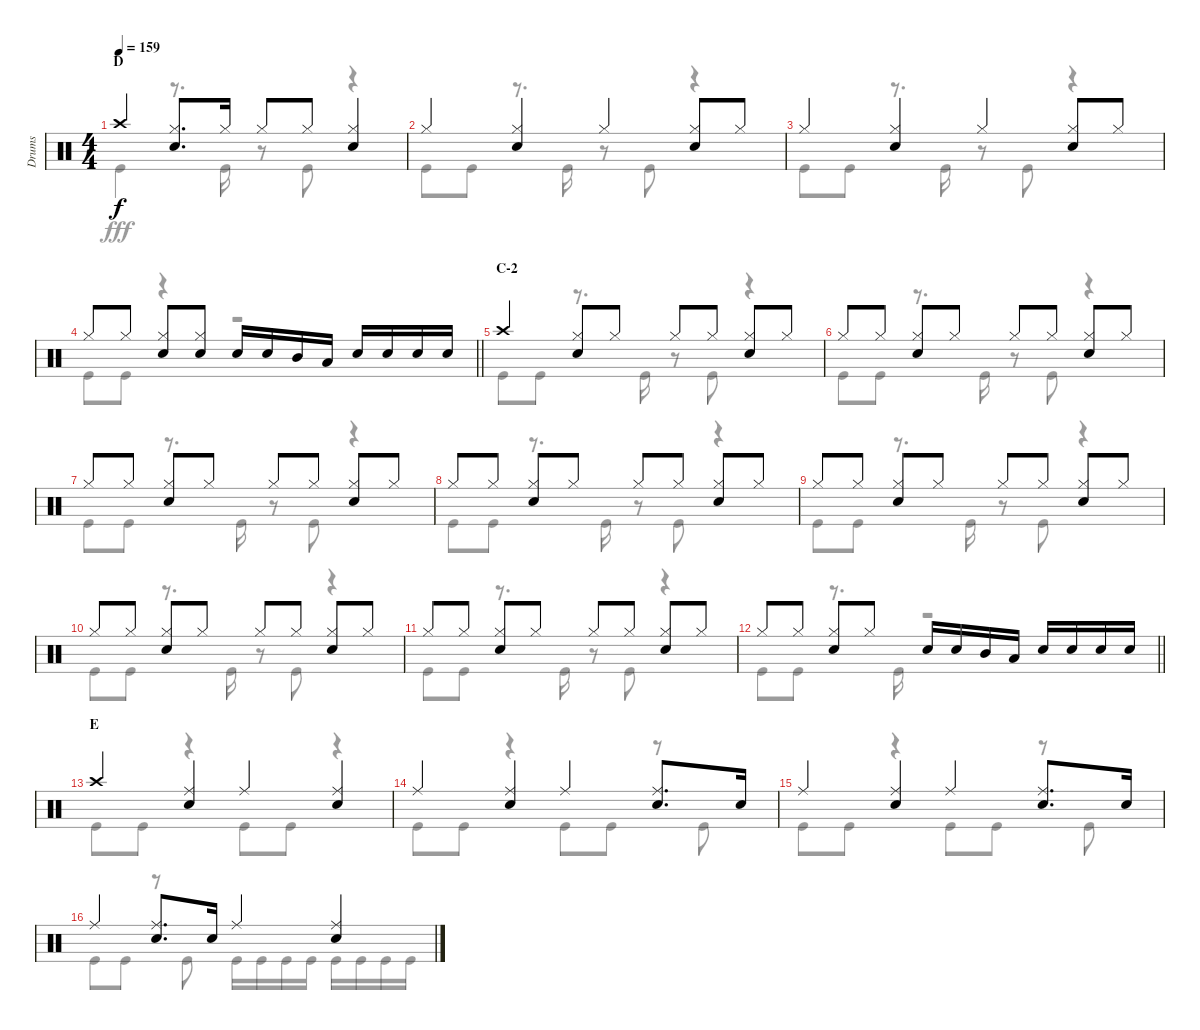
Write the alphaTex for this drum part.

\track ("Drums" "Drums") {instrument percussion}
\staff {score}
\articulation defaults
\voice
\ts (4 4)
\section ("" "D")
\tempo 159
\clef neutral
\ks c "Crash high (hit)".4{dy f}
("Hi-Hat (closed)" "Snare (hit) 2").8{d} "Hi-Hat (closed)".16 "Hi-Hat (closed)".8 "Hi-Hat (closed)".8 ("Hi-Hat (closed)" "Snare (hit) 2").4 |
"Hi-Hat (closed)".4 ("Hi-Hat (closed)" "Snare (hit) 2").4 "Hi-Hat (closed)".4 ("Hi-Hat (closed)" "Snare (hit) 2").8 "Hi-Hat (closed)".8 |
"Hi-Hat (closed)".4 ("Hi-Hat (closed)" "Snare (hit) 2").4 "Hi-Hat (closed)".4 ("Hi-Hat (closed)" "Snare (hit) 2").8 "Hi-Hat (closed)".8 |
\barLineRight lightlight "Hi-Hat (closed)".8 "Hi-Hat (closed)".8
("Hi-Hat (closed)" "Snare (hit) 2").8 ("Hi-Hat (closed)" "Snare (hit) 2").8 "Snare (hit) 2".16 "Snare (hit) 2".16 "Mid Tom (hit)".16 "Low Tom (hit)".16 "Snare (hit) 2".16 "Snare (hit) 2".16 "Snare (hit) 2".16 "Snare (hit) 2".16 |
\section ("" "C-2")
"Crash high (hit)".4 ("Hi-Hat (closed)" "Snare (hit) 2").8 "Hi-Hat (closed)".8 "Hi-Hat (closed)".8 "Hi-Hat (closed)".8 ("Hi-Hat (closed)" "Snare (hit) 2").8 "Hi-Hat (closed)".8 |
"Hi-Hat (closed)".8 "Hi-Hat (closed)".8 ("Hi-Hat (closed)" "Snare (hit) 2").8 "Hi-Hat (closed)".8 "Hi-Hat (closed)".8 "Hi-Hat (closed)".8 ("Hi-Hat (closed)" "Snare (hit) 2").8 "Hi-Hat (closed)".8 |
"Hi-Hat (closed)".8 "Hi-Hat (closed)".8 ("Hi-Hat (closed)" "Snare (hit) 2").8 "Hi-Hat (closed)".8 "Hi-Hat (closed)".8 "Hi-Hat (closed)".8 ("Hi-Hat (closed)" "Snare (hit) 2").8 "Hi-Hat (closed)".8 |
"Hi-Hat (closed)".8 "Hi-Hat (closed)".8 ("Hi-Hat (closed)" "Snare (hit) 2").8 "Hi-Hat (closed)".8 "Hi-Hat (closed)".8 "Hi-Hat (closed)".8 ("Hi-Hat (closed)" "Snare (hit) 2").8 "Hi-Hat (closed)".8 |
"Hi-Hat (closed)".8 "Hi-Hat (closed)".8 ("Hi-Hat (closed)" "Snare (hit) 2").8 "Hi-Hat (closed)".8 "Hi-Hat (closed)".8 "Hi-Hat (closed)".8 ("Hi-Hat (closed)" "Snare (hit) 2").8 "Hi-Hat (closed)".8 |
"Hi-Hat (closed)".8 "Hi-Hat (closed)".8 ("Hi-Hat (closed)" "Snare (hit) 2").8 "Hi-Hat (closed)".8 "Hi-Hat (closed)".8 "Hi-Hat (closed)".8 ("Hi-Hat (closed)" "Snare (hit) 2").8 "Hi-Hat (closed)".8 |
"Hi-Hat (closed)".8 "Hi-Hat (closed)".8 ("Hi-Hat (closed)" "Snare (hit) 2").8 "Hi-Hat (closed)".8 "Hi-Hat (closed)".8 "Hi-Hat (closed)".8 ("Hi-Hat (closed)" "Snare (hit) 2").8 "Hi-Hat (closed)".8 |
\barLineRight lightlight "Hi-Hat (closed)".8 "Hi-Hat (closed)".8
("Hi-Hat (closed)" "Snare (hit) 2").8 "Hi-Hat (closed)".8 "Snare (hit) 2".16 "Snare (hit) 2".16 "Mid Tom (hit)".16 "Low Tom (hit)".16 "Snare (hit) 2".16 "Snare (hit) 2".16 "Snare (hit) 2".16 "Snare (hit) 2".16 |
\section ("" "E")
"Crash high (hit)".4 ("Ride (middle)" "Snare (hit) 2").4 "Ride (middle)".4 ("Ride (middle)" "Snare (hit) 2").4 |
"Ride (middle)".4 ("Ride (middle)" "Snare (hit) 2").4 "Ride (middle)".4 ("Ride (middle)" "Snare (hit) 2").8{d} "Snare (hit) 2".16 |
"Ride (middle)".4 ("Ride (middle)" "Snare (hit) 2").4 "Ride (middle)".4 ("Ride (middle)" "Snare (hit) 2").8{d} "Snare (hit) 2".16 |
"Ride (middle)".4 ("Ride (middle)" "Snare (hit) 2").8{d} "Snare (hit) 2".16 "Ride (middle)".4 ("Ride (middle)" "Snare (hit) 2").4
\voice
\clef neutral
\ottava regular
\simile none
\ks c "Kick (hit)".4{dy fff}
r.8{d} "Kick (hit)".16 r.8 "Kick (hit)".8 r.4 |
"Kick (hit)".8 "Kick (hit)".8 r.8{d} "Kick (hit)".16 r.8 "Kick (hit)".8 r.4 |
"Kick (hit)".8 "Kick (hit)".8 r.8{d} "Kick (hit)".16 r.8 "Kick (hit)".8 r.4 |
\barLineRight lightlight "Kick (hit)".8 "Kick (hit)".8
r.4 r.2 |
"Kick (hit)".8 "Kick (hit)".8 r.8{d} "Kick (hit)".16 r.8 "Kick (hit)".8 r.4 |
"Kick (hit)".8 "Kick (hit)".8 r.8{d} "Kick (hit)".16 r.8 "Kick (hit)".8 r.4 |
"Kick (hit)".8 "Kick (hit)".8 r.8{d} "Kick (hit)".16 r.8 "Kick (hit)".8 r.4 |
"Kick (hit)".8 "Kick (hit)".8 r.8{d} "Kick (hit)".16 r.8 "Kick (hit)".8 r.4 |
"Kick (hit)".8 "Kick (hit)".8 r.8{d} "Kick (hit)".16 r.8 "Kick (hit)".8 r.4 |
"Kick (hit)".8 "Kick (hit)".8 r.8{d} "Kick (hit)".16 r.8 "Kick (hit)".8 r.4 |
"Kick (hit)".8 "Kick (hit)".8 r.8{d} "Kick (hit)".16 r.8 "Kick (hit)".8 r.4 |
\barLineRight lightlight "Kick (hit)".8 "Kick (hit)".8
r.8{d} "Kick (hit)".16 r.2 |
"Kick (hit)".8 "Kick (hit)".8 r.4 "Kick (hit)".8 "Kick (hit)".8 r.4 |
"Kick (hit)".8 "Kick (hit)".8 r.4 "Kick (hit)".8 "Kick (hit)".8 r.8 "Kick (hit)".8 |
"Kick (hit)".8 "Kick (hit)".8 r.4 "Kick (hit)".8 "Kick (hit)".8 r.8 "Kick (hit)".8 |
"Kick (hit)".8 "Kick (hit)".8 r.8 "Kick (hit)".8 "Kick (hit)".16 "Kick (hit)".16 "Kick (hit)".16 "Kick (hit)".16 "Kick (hit)".16 "Kick (hit)".16 "Kick (hit)".16 "Kick (hit)".16
